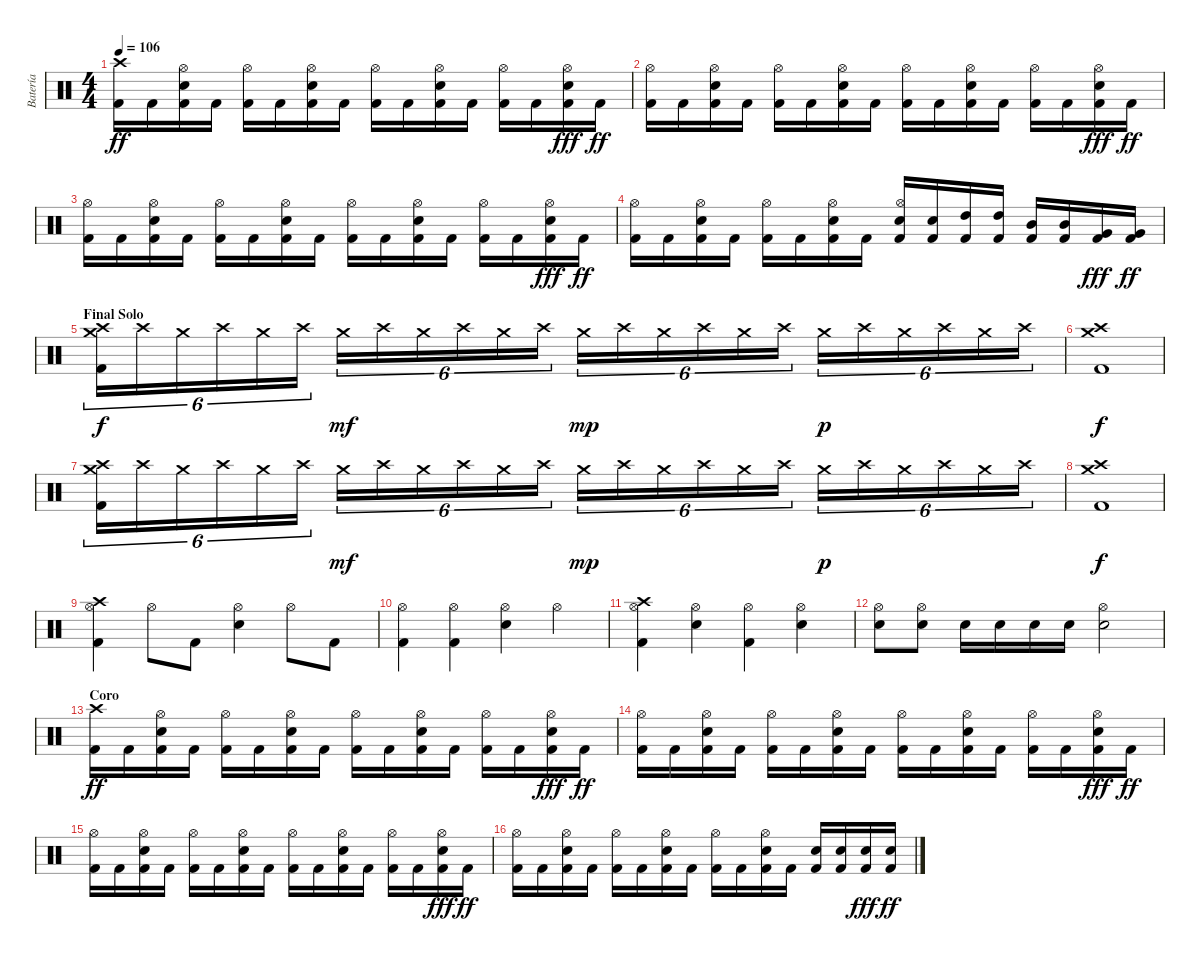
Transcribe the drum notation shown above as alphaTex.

\track ("Batería" "Batería") {instrument percussion}
\staff {score}
\articulation defaults
\ts (4 4)
\tempo 106
\clef neutral
\ks c
("Crash high (hit)" "Kick (hit) 2").16{dy ff} "Kick (hit) 2".16 ("Hi-Hat (open)" "Electric Snare (hit)" "Kick (hit) 2").16 "Kick (hit) 2".16 ("Hi-Hat (open)" "Kick (hit) 2").16 "Kick (hit) 2".16 ("Hi-Hat (open)" "Electric Snare (hit)" "Kick (hit) 2").16 "Kick (hit) 2".16 ("Hi-Hat (open)" "Kick (hit) 2").16 "Kick (hit) 2".16 ("Hi-Hat (open)" "Electric Snare (hit)" "Kick (hit) 2").16 "Kick (hit) 2".16 ("Hi-Hat (open)" "Kick (hit) 2").16 "Kick (hit) 2".16 ("Hi-Hat (open)" "Electric Snare (hit)" "Kick (hit) 2").16{dy fff} "Kick (hit) 2".16{dy ff} |
("Hi-Hat (open)" "Kick (hit) 2").16 "Kick (hit) 2".16 ("Hi-Hat (open)" "Electric Snare (hit)" "Kick (hit) 2").16 "Kick (hit) 2".16 ("Hi-Hat (open)" "Kick (hit) 2").16 "Kick (hit) 2".16 ("Hi-Hat (open)" "Electric Snare (hit)" "Kick (hit) 2").16 "Kick (hit) 2".16 ("Hi-Hat (open)" "Kick (hit) 2").16 "Kick (hit) 2".16 ("Hi-Hat (open)" "Electric Snare (hit)" "Kick (hit) 2").16 "Kick (hit) 2".16 ("Hi-Hat (open)" "Kick (hit) 2").16 "Kick (hit) 2".16 ("Hi-Hat (open)" "Electric Snare (hit)" "Kick (hit) 2").16{dy fff} "Kick (hit) 2".16{dy ff} |
("Hi-Hat (open)" "Kick (hit) 2").16 "Kick (hit) 2".16 ("Hi-Hat (open)" "Electric Snare (hit)" "Kick (hit) 2").16 "Kick (hit) 2".16 ("Hi-Hat (open)" "Kick (hit) 2").16 "Kick (hit) 2".16 ("Hi-Hat (open)" "Electric Snare (hit)" "Kick (hit) 2").16 "Kick (hit) 2".16 ("Hi-Hat (open)" "Kick (hit) 2").16 "Kick (hit) 2".16 ("Hi-Hat (open)" "Electric Snare (hit)" "Kick (hit) 2").16 "Kick (hit) 2".16 ("Hi-Hat (open)" "Kick (hit) 2").16 "Kick (hit) 2".16 ("Hi-Hat (open)" "Electric Snare (hit)" "Kick (hit) 2").16{dy fff} "Kick (hit) 2".16{dy ff} |
("Hi-Hat (open)" "Kick (hit) 2").16 "Kick (hit) 2".16 ("Hi-Hat (open)" "Electric Snare (hit)" "Kick (hit) 2").16 "Kick (hit) 2".16 ("Hi-Hat (open)" "Kick (hit) 2").16 "Kick (hit) 2".16 ("Hi-Hat (open)" "Electric Snare (hit)" "Kick (hit) 2").16 "Kick (hit) 2".16 ("Hi-Hat (open)" "Electric Snare (hit)" "Kick (hit) 2").16 ("Electric Snare (hit)" "Kick (hit) 2").16 ("High Tom (hit)" "Kick (hit) 2").16 ("High Tom (hit)" "Kick (hit) 2").16 ("Mid Tom (hit)" "Kick (hit) 2").16 ("Mid Tom (hit)" "Kick (hit) 2").16 ("Very Low Tom (hit)" "Kick (hit) 2").16{dy fff} ("Very Low Tom (hit)" "Kick (hit) 2").16{dy ff} |
\section ("" "Final Solo")
("Crash medium (hit)" "Crash high (hit)" "Kick (hit) 2").16{tu (6 4) dy f} "Crash high (hit)".16{tu (6 4)} "Crash medium (hit)".16{tu (6 4)} "Crash high (hit)".16{tu (6 4)} "Crash medium (hit)".16{tu (6 4)} "Crash high (hit)".16{tu (6 4)} "Crash medium (hit)".16{tu (6 4) dy mf} "Crash high (hit)".16{tu (6 4)} "Crash medium (hit)".16{tu (6 4)} "Crash high (hit)".16{tu (6 4)} "Crash medium (hit)".16{tu (6 4)} "Crash high (hit)".16{tu (6 4)} "Crash medium (hit)".16{tu (6 4) dy mp} "Crash high (hit)".16{tu (6 4)} "Crash medium (hit)".16{tu (6 4)} "Crash high (hit)".16{tu (6 4)} "Crash medium (hit)".16{tu (6 4)} "Crash high (hit)".16{tu (6 4)} "Crash medium (hit)".16{tu (6 4) dy p} "Crash high (hit)".16{tu (6 4)} "Crash medium (hit)".16{tu (6 4)} "Crash high (hit)".16{tu (6 4)} "Crash medium (hit)".16{tu (6 4)} "Crash high (hit)".16{tu (6 4)} |
("Crash high (hit)" "Crash medium (hit)" "Kick (hit) 2").1{dy f} |
("Crash medium (hit)" "Crash high (hit)" "Kick (hit) 2").16{tu (6 4)} "Crash high (hit)".16{tu (6 4)} "Crash medium (hit)".16{tu (6 4)} "Crash high (hit)".16{tu (6 4)} "Crash medium (hit)".16{tu (6 4)} "Crash high (hit)".16{tu (6 4)} "Crash medium (hit)".16{tu (6 4) dy mf} "Crash high (hit)".16{tu (6 4)} "Crash medium (hit)".16{tu (6 4)} "Crash high (hit)".16{tu (6 4)} "Crash medium (hit)".16{tu (6 4)} "Crash high (hit)".16{tu (6 4)} "Crash medium (hit)".16{tu (6 4) dy mp} "Crash high (hit)".16{tu (6 4)} "Crash medium (hit)".16{tu (6 4)} "Crash high (hit)".16{tu (6 4)} "Crash medium (hit)".16{tu (6 4)} "Crash high (hit)".16{tu (6 4)} "Crash medium (hit)".16{tu (6 4) dy p} "Crash high (hit)".16{tu (6 4)} "Crash medium (hit)".16{tu (6 4)} "Crash high (hit)".16{tu (6 4)} "Crash medium (hit)".16{tu (6 4)} "Crash high (hit)".16{tu (6 4)} |
("Crash medium (hit)" "Crash high (hit)" "Kick (hit) 2").1{dy f} |
("Crash high (hit)" "Hi-Hat (open)" "Kick (hit) 2").4 "Hi-Hat (open)".8 "Kick (hit) 2".8 ("Hi-Hat (open)" "Electric Snare (hit)").4 "Hi-Hat (open)".8 "Kick (hit) 2".8 |
("Hi-Hat (open)" "Kick (hit) 2").4 ("Hi-Hat (open)" "Kick (hit) 2").4 ("Hi-Hat (open)" "Electric Snare (hit)").4 "Hi-Hat (open)".4 |
("Crash high (hit)" "Hi-Hat (open)" "Kick (hit) 2").4 ("Hi-Hat (open)" "Electric Snare (hit)").4 ("Hi-Hat (open)" "Kick (hit) 2").4 ("Hi-Hat (open)" "Electric Snare (hit)").4 |
("Hi-Hat (open)" "Electric Snare (hit)").8 ("Hi-Hat (open)" "Electric Snare (hit)").8 "Electric Snare (hit)".16 "Electric Snare (hit)".16 "Electric Snare (hit)".16 "Electric Snare (hit)".16 ("Hi-Hat (open)" "Electric Snare (hit)").2 |
\section ("" "Coro")
("Crash high (hit)" "Kick (hit) 2").16{dy ff} "Kick (hit) 2".16 ("Hi-Hat (open)" "Electric Snare (hit)" "Kick (hit) 2").16 "Kick (hit) 2".16 ("Hi-Hat (open)" "Kick (hit) 2").16 "Kick (hit) 2".16 ("Hi-Hat (open)" "Electric Snare (hit)" "Kick (hit) 2").16 "Kick (hit) 2".16 ("Hi-Hat (open)" "Kick (hit) 2").16 "Kick (hit) 2".16 ("Hi-Hat (open)" "Electric Snare (hit)" "Kick (hit) 2").16 "Kick (hit) 2".16 ("Hi-Hat (open)" "Kick (hit) 2").16 "Kick (hit) 2".16 ("Hi-Hat (open)" "Electric Snare (hit)" "Kick (hit) 2").16{dy fff} "Kick (hit) 2".16{dy ff} |
("Hi-Hat (open)" "Kick (hit) 2").16 "Kick (hit) 2".16 ("Hi-Hat (open)" "Electric Snare (hit)" "Kick (hit) 2").16 "Kick (hit) 2".16 ("Hi-Hat (open)" "Kick (hit) 2").16 "Kick (hit) 2".16 ("Hi-Hat (open)" "Electric Snare (hit)" "Kick (hit) 2").16 "Kick (hit) 2".16 ("Hi-Hat (open)" "Kick (hit) 2").16 "Kick (hit) 2".16 ("Hi-Hat (open)" "Electric Snare (hit)" "Kick (hit) 2").16 "Kick (hit) 2".16 ("Hi-Hat (open)" "Kick (hit) 2").16 "Kick (hit) 2".16 ("Hi-Hat (open)" "Electric Snare (hit)" "Kick (hit) 2").16{dy fff} "Kick (hit) 2".16{dy ff} |
("Hi-Hat (open)" "Kick (hit) 2").16 "Kick (hit) 2".16 ("Hi-Hat (open)" "Electric Snare (hit)" "Kick (hit) 2").16 "Kick (hit) 2".16 ("Hi-Hat (open)" "Kick (hit) 2").16 "Kick (hit) 2".16 ("Hi-Hat (open)" "Electric Snare (hit)" "Kick (hit) 2").16 "Kick (hit) 2".16 ("Hi-Hat (open)" "Kick (hit) 2").16 "Kick (hit) 2".16 ("Hi-Hat (open)" "Electric Snare (hit)" "Kick (hit) 2").16 "Kick (hit) 2".16 ("Hi-Hat (open)" "Kick (hit) 2").16 "Kick (hit) 2".16 ("Hi-Hat (open)" "Electric Snare (hit)" "Kick (hit) 2").16{dy fff} "Kick (hit) 2".16{dy ff} |
("Hi-Hat (open)" "Kick (hit) 2").16 "Kick (hit) 2".16 ("Hi-Hat (open)" "Electric Snare (hit)" "Kick (hit) 2").16 "Kick (hit) 2".16 ("Hi-Hat (open)" "Kick (hit) 2").16 "Kick (hit) 2".16 ("Hi-Hat (open)" "Electric Snare (hit)" "Kick (hit) 2").16 "Kick (hit) 2".16 ("Hi-Hat (open)" "Kick (hit) 2").16 "Kick (hit) 2".16 ("Hi-Hat (open)" "Electric Snare (hit)" "Kick (hit) 2").16 "Kick (hit) 2".16 ("Electric Snare (hit)" "Kick (hit) 2").16 ("Electric Snare (hit)" "Kick (hit) 2").16 ("Electric Snare (hit)" "Kick (hit) 2").16{dy fff} ("Electric Snare (hit)" "Kick (hit) 2").16{dy ff}
